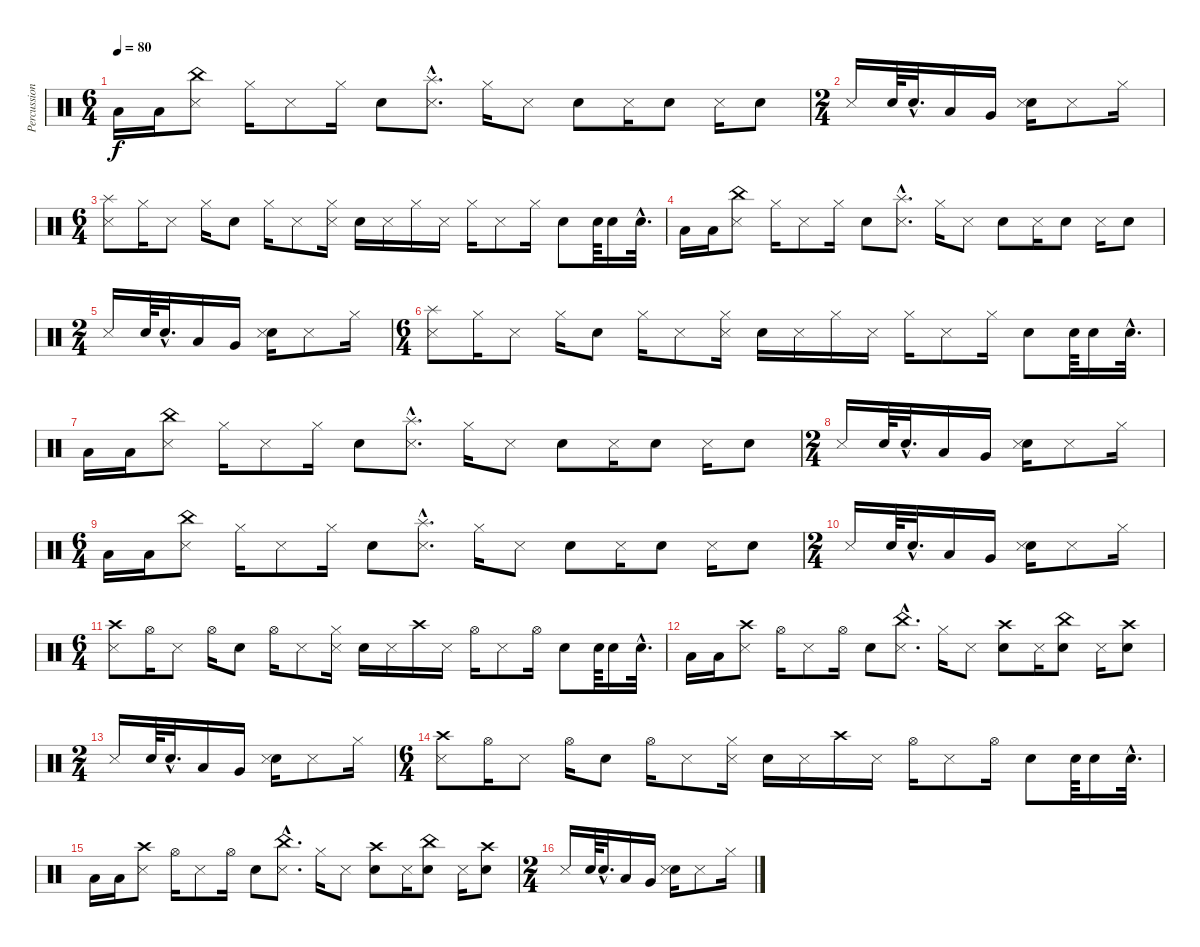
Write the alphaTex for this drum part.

\track ("Percussions" "Percussion") {instrument percussion}
\staff {score}
\articulation defaults
\ts (6 4)
\tempo 80
\clef neutral
\ks c "Low Floor Tom (hit)".16{dy f} "Low Floor Tom (hit)".16
("China (hit)" "Metronome (hit)").8 "Hi-Hat (closed)".16 "Metronome (hit)".8 "Hi-Hat (closed)".16 "Snare (hit) 2".8 ("Splash (hit)"{hac} "Metronome (hit)"{hac}).8{d} "Hi-Hat (closed)".16 "Metronome (hit)".8 "Snare (hit) 2".8 "Metronome (hit)".16 "Snare (hit) 2".8 "Metronome (hit)".16 "Snare (hit) 2".8 |
\ts (2 4)
"Metronome (hit)".16 "Snare (hit) 2".64 "Snare (hit) 2"{hac}.32{d} "Low Floor Tom (hit)".16 "Very Low Tom (hit)".16 ("Snare (hit) 2" "Metronome (hit)").16 "Metronome (hit)".8 "Hi-Hat (closed)".16 |
\ts (6 4)
("Splash (hit)" "Metronome (hit)").8 "Hi-Hat (closed)".16 "Metronome (hit)".8 "Hi-Hat (closed)".16 "Snare (hit) 2".8 "Hi-Hat (closed)".16 "Metronome (hit)".8 ("Hi-Hat (closed)" "Metronome (hit)").16 "Snare (hit) 2".16 "Metronome (hit)".16 "Hi-Hat (closed)".16 "Metronome (hit)".16 "Hi-Hat (closed)".16 "Metronome (hit)".8 "Hi-Hat (closed)".16 "Snare (hit) 2".8 "Snare (hit) 2".64 "Snare (hit) 2".16 "Snare (hit) 2"{hac}.32{d} |
"Low Floor Tom (hit)".16 "Low Floor Tom (hit)".16 ("China (hit)" "Metronome (hit)").8 "Hi-Hat (closed)".16 "Metronome (hit)".8 "Hi-Hat (closed)".16 "Snare (hit) 2".8 ("Splash (hit)"{hac} "Metronome (hit)"{hac}).8{d} "Hi-Hat (closed)".16 "Metronome (hit)".8 "Snare (hit) 2".8 "Metronome (hit)".16 "Snare (hit) 2".8 "Metronome (hit)".16 "Snare (hit) 2".8 |
\ts (2 4)
"Metronome (hit)".16 "Snare (hit) 2".64 "Snare (hit) 2"{hac}.32{d} "Low Floor Tom (hit)".16 "Very Low Tom (hit)".16 ("Snare (hit) 2" "Metronome (hit)").16 "Metronome (hit)".8 "Hi-Hat (closed)".16 |
\ts (6 4)
("Splash (hit)" "Metronome (hit)").8 "Hi-Hat (closed)".16 "Metronome (hit)".8 "Hi-Hat (closed)".16 "Snare (hit) 2".8 "Hi-Hat (closed)".16 "Metronome (hit)".8 ("Hi-Hat (closed)" "Metronome (hit)").16 "Snare (hit) 2".16 "Metronome (hit)".16 "Hi-Hat (closed)".16 "Metronome (hit)".16 "Hi-Hat (closed)".16 "Metronome (hit)".8 "Hi-Hat (closed)".16 "Snare (hit) 2".8 "Snare (hit) 2".64 "Snare (hit) 2".16 "Snare (hit) 2"{hac}.32{d} |
"Low Floor Tom (hit)".16 "Low Floor Tom (hit)".16 ("China (hit)" "Metronome (hit)").8 "Hi-Hat (closed)".16 "Metronome (hit)".8 "Hi-Hat (closed)".16 "Snare (hit) 2".8 ("Splash (hit)"{hac} "Metronome (hit)"{hac}).8{d} "Hi-Hat (closed)".16 "Metronome (hit)".8 "Snare (hit) 2".8 "Metronome (hit)".16 "Snare (hit) 2".8 "Metronome (hit)".16 "Snare (hit) 2".8 |
\ts (2 4)
"Metronome (hit)".16 "Snare (hit) 2".64 "Snare (hit) 2"{hac}.32{d} "Low Floor Tom (hit)".16 "Very Low Tom (hit)".16 ("Snare (hit) 2" "Metronome (hit)").16 "Metronome (hit)".8 "Hi-Hat (closed)".16 |
\ts (6 4)
"Low Floor Tom (hit)".16 "Low Floor Tom (hit)".16 ("China (hit)" "Metronome (hit)").8 "Hi-Hat (closed)".16 "Metronome (hit)".8 "Hi-Hat (closed)".16 "Snare (hit) 2".8 ("Splash (hit)"{hac} "Metronome (hit)"{hac}).8{d} "Hi-Hat (closed)".16 "Metronome (hit)".8 "Snare (hit) 2".8 "Metronome (hit)".16 "Snare (hit) 2".8 "Metronome (hit)".16 "Snare (hit) 2".8 |
\ts (2 4)
"Metronome (hit)".16 "Snare (hit) 2".64 "Snare (hit) 2"{hac}.32{d} "Low Floor Tom (hit)".16 "Very Low Tom (hit)".16 ("Snare (hit) 2" "Metronome (hit)").16 "Metronome (hit)".8 "Hi-Hat (closed)".16 |
\ts (6 4)
("Crash high (hit)" "Metronome (hit)").8 "Hi-Hat (open)".16 "Metronome (hit)".8 "Hi-Hat (open)".16 "Snare (hit) 2".8 "Hi-Hat (open)".16 "Metronome (hit)".8 ("Hi-Hat (closed)" "Metronome (hit)").16 "Snare (hit) 2".16 "Metronome (hit)".16 "Crash high (hit)".16 "Metronome (hit)".16 "Hi-Hat (open)".16 "Metronome (hit)".8 "Hi-Hat (open)".16 "Snare (hit) 2".8 "Snare (hit) 2".64 "Snare (hit) 2".16 "Snare (hit) 2"{hac}.32{d} |
"Low Floor Tom (hit)".16 "Low Floor Tom (hit)".16 ("Crash high (hit)" "Metronome (hit)").8 "Hi-Hat (open)".16 "Metronome (hit)".8 "Hi-Hat (open)".16 "Snare (hit) 2".8 ("China (hit)"{hac} "Metronome (hit)"{hac}).8{d} "Hi-Hat (closed)".16 "Metronome (hit)".8 ("Crash high (hit)" "Snare (hit) 2").8 "Metronome (hit)".16 ("China (hit)" "Snare (hit) 2").8 "Metronome (hit)".16 ("Crash high (hit)" "Snare (hit) 2").8 |
\ts (2 4)
"Metronome (hit)".16 "Snare (hit) 2".64 "Snare (hit) 2"{hac}.32{d} "Low Floor Tom (hit)".16 "Very Low Tom (hit)".16 ("Snare (hit) 2" "Metronome (hit)").16 "Metronome (hit)".8 "Hi-Hat (closed)".16 |
\ts (6 4)
("Crash high (hit)" "Metronome (hit)").8 "Hi-Hat (open)".16 "Metronome (hit)".8 "Hi-Hat (open)".16 "Snare (hit) 2".8 "Hi-Hat (open)".16 "Metronome (hit)".8 ("Hi-Hat (closed)" "Metronome (hit)").16 "Snare (hit) 2".16 "Metronome (hit)".16 "Crash high (hit)".16 "Metronome (hit)".16 "Hi-Hat (open)".16 "Metronome (hit)".8 "Hi-Hat (open)".16 "Snare (hit) 2".8 "Snare (hit) 2".64 "Snare (hit) 2".16 "Snare (hit) 2"{hac}.32{d} |
"Low Floor Tom (hit)".16 "Low Floor Tom (hit)".16 ("Crash high (hit)" "Metronome (hit)").8 "Hi-Hat (open)".16 "Metronome (hit)".8 "Hi-Hat (open)".16 "Snare (hit) 2".8 ("China (hit)"{hac} "Metronome (hit)"{hac}).8{d} "Hi-Hat (closed)".16 "Metronome (hit)".8 ("Crash high (hit)" "Snare (hit) 2").8 "Metronome (hit)".16 ("China (hit)" "Snare (hit) 2").8 "Metronome (hit)".16 ("Crash high (hit)" "Snare (hit) 2").8 |
\ts (2 4)
"Metronome (hit)".16 "Snare (hit) 2".64 "Snare (hit) 2"{hac}.32{d} "Low Floor Tom (hit)".16 "Very Low Tom (hit)".16 ("Snare (hit) 2" "Metronome (hit)").16 "Metronome (hit)".8 "Hi-Hat (closed)".16
